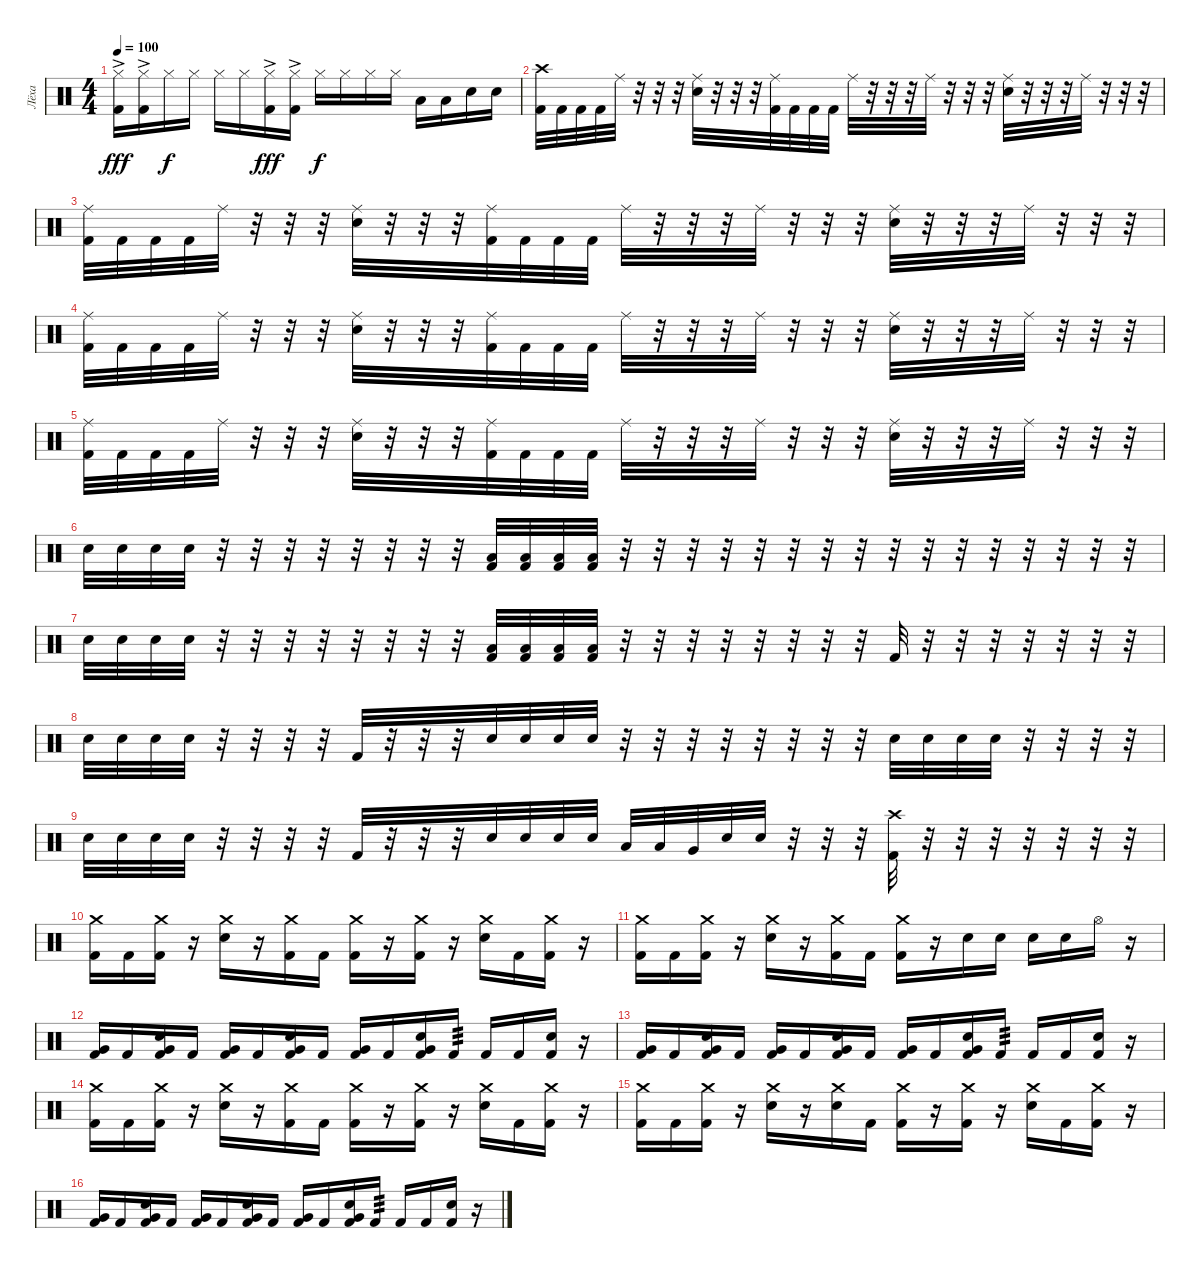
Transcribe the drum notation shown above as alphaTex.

\track ("Лёха" "Лёха") {instrument percussion}
\staff {score}
\articulation defaults
\ts (4 4)
\tempo 100
\clef neutral
\ks c
("Hi-Hat (closed)"{ac} "Kick (hit) 2").16{dy fff} ("Hi-Hat (closed)"{ac} "Kick (hit) 2").16 "Hi-Hat (closed)".16{dy f} "Hi-Hat (closed)".16 "Hi-Hat (closed)".16 "Hi-Hat (closed)".16 ("Hi-Hat (closed)"{ac} "Kick (hit) 2").16{dy fff} ("Hi-Hat (closed)"{ac} "Kick (hit) 2").16 "Hi-Hat (closed)".16{dy f} "Hi-Hat (closed)".16 "Hi-Hat (closed)".16 "Hi-Hat (closed)".16 "Low Tom (hit)".16 "Low Tom (hit)".16 "Electric Snare (hit)".16 "Electric Snare (hit)".16 |
("Crash high (hit)" "Kick (hit) 2").32 "Kick (hit) 2".32 "Kick (hit) 2".32 "Kick (hit) 2".32 "Ride (middle)".32 r.32 r.32 r.32 ("Ride (middle)" "Electric Snare (hit)").32 r.32 r.32 r.32 ("Ride (middle)" "Kick (hit) 2").32 "Kick (hit) 2".32 "Kick (hit) 2".32 "Kick (hit) 2".32 "Ride (middle)".32 r.32 r.32 r.32 "Ride (middle)".32 r.32 r.32 r.32 ("Ride (middle)" "Electric Snare (hit)").32 r.32 r.32 r.32 "Ride (middle)".32 r.32 r.32 r.32 |
("Ride (middle)" "Kick (hit) 2").32 "Kick (hit) 2".32 "Kick (hit) 2".32 "Kick (hit) 2".32 "Ride (middle)".32 r.32 r.32 r.32 ("Ride (middle)" "Electric Snare (hit)").32 r.32 r.32 r.32 ("Ride (middle)" "Kick (hit) 2").32 "Kick (hit) 2".32 "Kick (hit) 2".32 "Kick (hit) 2".32 "Ride (middle)".32 r.32 r.32 r.32 "Ride (middle)".32 r.32 r.32 r.32 ("Ride (middle)" "Electric Snare (hit)").32 r.32 r.32 r.32 "Ride (middle)".32 r.32 r.32 r.32 |
("Ride (middle)" "Kick (hit) 2").32 "Kick (hit) 2".32 "Kick (hit) 2".32 "Kick (hit) 2".32 "Ride (middle)".32 r.32 r.32 r.32 ("Ride (middle)" "Electric Snare (hit)").32 r.32 r.32 r.32 ("Ride (middle)" "Kick (hit) 2").32 "Kick (hit) 2".32 "Kick (hit) 2".32 "Kick (hit) 2".32 "Ride (middle)".32 r.32 r.32 r.32 "Ride (middle)".32 r.32 r.32 r.32 ("Ride (middle)" "Electric Snare (hit)").32 r.32 r.32 r.32 "Ride (middle)".32 r.32 r.32 r.32 |
("Ride (middle)" "Kick (hit) 2").32 "Kick (hit) 2".32 "Kick (hit) 2".32 "Kick (hit) 2".32 "Ride (middle)".32 r.32 r.32 r.32 ("Ride (middle)" "Electric Snare (hit)").32 r.32 r.32 r.32 ("Ride (middle)" "Kick (hit) 2").32 "Kick (hit) 2".32 "Kick (hit) 2".32 "Kick (hit) 2".32 "Ride (middle)".32 r.32 r.32 r.32 "Ride (middle)".32 r.32 r.32 r.32 ("Ride (middle)" "Electric Snare (hit)").32 r.32 r.32 r.32 "Ride (middle)".32 r.32 r.32 r.32 |
"Electric Snare (hit)".32 "Electric Snare (hit)".32 "Electric Snare (hit)".32 "Electric Snare (hit)".32 r.32 r.32 r.32 r.32 r.32 r.32 r.32 r.32 ("Low Tom (hit)" "Kick (hit) 2").32 ("Low Tom (hit)" "Kick (hit) 2").32 ("Low Tom (hit)" "Kick (hit) 2").32 ("Low Tom (hit)" "Kick (hit) 2").32 r.32 r.32 r.32 r.32 r.32 r.32 r.32 r.32 r.32 r.32 r.32 r.32 r.32 r.32 r.32 r.32 |
"Electric Snare (hit)".32 "Electric Snare (hit)".32 "Electric Snare (hit)".32 "Electric Snare (hit)".32 r.32 r.32 r.32 r.32 r.32 r.32 r.32 r.32 ("Low Tom (hit)" "Kick (hit) 2").32 ("Low Tom (hit)" "Kick (hit) 2").32 ("Low Tom (hit)" "Kick (hit) 2").32 ("Low Tom (hit)" "Kick (hit) 2").32 r.32 r.32 r.32 r.32 r.32 r.32 r.32 r.32 "Kick (hit) 2".32 r.32 r.32 r.32 r.32 r.32 r.32 r.32 |
"Electric Snare (hit)".32 "Electric Snare (hit)".32 "Electric Snare (hit)".32 "Electric Snare (hit)".32 r.32 r.32 r.32 r.32 "Kick (hit) 2".32 r.32 r.32 r.32 "Electric Snare (hit)".32 "Electric Snare (hit)".32 "Electric Snare (hit)".32 "Electric Snare (hit)".32 r.32 r.32 r.32 r.32 r.32 r.32 r.32 r.32 "Electric Snare (hit)".32 "Electric Snare (hit)".32 "Electric Snare (hit)".32 "Electric Snare (hit)".32 r.32 r.32 r.32 r.32 |
"Electric Snare (hit)".32 "Electric Snare (hit)".32 "Electric Snare (hit)".32 "Electric Snare (hit)".32 r.32 r.32 r.32 r.32 "Kick (hit) 2".32 r.32 r.32 r.32 "Electric Snare (hit)".32 "Electric Snare (hit)".32 "Electric Snare (hit)".32 "Electric Snare (hit)".32 "Low Tom (hit)".32 "Low Tom (hit)".32 "Very Low Tom (hit)".32 "Electric Snare (hit)".32 "Electric Snare (hit)".32 r.32 r.32 r.32 ("Crash high (hit)" "Kick (hit) 2").32 r.32 r.32 r.32 r.32 r.32 r.32 r.32 |
("Crash medium (hit)" "Kick (hit) 2").16 "Kick (hit) 2".16 ("Crash medium (hit)" "Kick (hit) 2").16 r.16 ("Crash medium (hit)" "Electric Snare (hit)").16 r.16 ("Crash medium (hit)" "Kick (hit) 2").16 "Kick (hit) 2".16 ("Crash medium (hit)" "Kick (hit) 2").16 r.16 ("Crash medium (hit)" "Kick (hit) 2").16 r.16 ("Crash medium (hit)" "Electric Snare (hit)").16 "Kick (hit) 2".16 ("Crash medium (hit)" "Kick (hit) 2").16 r.16 |
("Crash medium (hit)" "Kick (hit) 2").16 "Kick (hit) 2".16 ("Crash medium (hit)" "Kick (hit) 2").16 r.16 ("Crash medium (hit)" "Electric Snare (hit)").16 r.16 ("Crash medium (hit)" "Kick (hit) 2").16 "Kick (hit) 2".16 ("Crash medium (hit)" "Kick (hit) 2").16 r.16 "Electric Snare (hit)".16 "Electric Snare (hit)".16 "Electric Snare (hit)".16 "Electric Snare (hit)".16 "Hi-Hat (open)".16 r.16 |
("Very Low Tom (hit)" "Kick (hit) 2").16 "Kick (hit) 2".16 ("Electric Snare (hit)" "Very Low Tom (hit)" "Kick (hit) 2").16 "Kick (hit) 2".16 ("Very Low Tom (hit)" "Kick (hit) 2").16 "Kick (hit) 2".16 ("Electric Snare (hit)" "Very Low Tom (hit)" "Kick (hit) 2").16 "Kick (hit) 2".16 ("Very Low Tom (hit)" "Kick (hit) 2").16 "Kick (hit) 2".16 ("Electric Snare (hit)" "Very Low Tom (hit)" "Kick (hit) 2").16 "Kick (hit) 2".16{tp 3} "Kick (hit) 2".16 "Kick (hit) 2".16 ("Electric Snare (hit)" "Kick (hit) 2").16 r.16 |
("Very Low Tom (hit)" "Kick (hit) 2").16 "Kick (hit) 2".16 ("Electric Snare (hit)" "Very Low Tom (hit)" "Kick (hit) 2").16 "Kick (hit) 2".16 ("Very Low Tom (hit)" "Kick (hit) 2").16 "Kick (hit) 2".16 ("Electric Snare (hit)" "Very Low Tom (hit)" "Kick (hit) 2").16 "Kick (hit) 2".16 ("Very Low Tom (hit)" "Kick (hit) 2").16 "Kick (hit) 2".16 ("Electric Snare (hit)" "Very Low Tom (hit)" "Kick (hit) 2").16 "Kick (hit) 2".16{tp 3} "Kick (hit) 2".16 "Kick (hit) 2".16 ("Electric Snare (hit)" "Kick (hit) 2").16 r.16 |
("Crash medium (hit)" "Kick (hit) 2").16 "Kick (hit) 2".16 ("Crash medium (hit)" "Kick (hit) 2").16 r.16 ("Crash medium (hit)" "Electric Snare (hit)").16 r.16 ("Crash medium (hit)" "Kick (hit) 2").16 "Kick (hit) 2".16 ("Crash medium (hit)" "Kick (hit) 2").16 r.16 ("Crash medium (hit)" "Kick (hit) 2").16 r.16 ("Crash medium (hit)" "Electric Snare (hit)").16 "Kick (hit) 2".16 ("Crash medium (hit)" "Kick (hit) 2").16 r.16 |
("Crash medium (hit)" "Kick (hit) 2").16 "Kick (hit) 2".16 ("Crash medium (hit)" "Kick (hit) 2").16 r.16 ("Crash medium (hit)" "Electric Snare (hit)").16 r.16 ("Crash medium (hit)" "Electric Snare (hit)").16 "Kick (hit) 2".16 ("Crash medium (hit)" "Kick (hit) 2").16 r.16 ("Crash medium (hit)" "Kick (hit) 2").16 r.16 ("Crash medium (hit)" "Electric Snare (hit)").16 "Kick (hit) 2".16 ("Crash medium (hit)" "Kick (hit) 2").16 r.16 |
("Very Low Tom (hit)" "Kick (hit) 2").16 "Kick (hit) 2".16 ("Electric Snare (hit)" "Very Low Tom (hit)" "Kick (hit) 2").16 "Kick (hit) 2".16 ("Very Low Tom (hit)" "Kick (hit) 2").16 "Kick (hit) 2".16 ("Electric Snare (hit)" "Very Low Tom (hit)" "Kick (hit) 2").16 "Kick (hit) 2".16 ("Very Low Tom (hit)" "Kick (hit) 2").16 "Kick (hit) 2".16 ("Electric Snare (hit)" "Very Low Tom (hit)" "Kick (hit) 2").16 "Kick (hit) 2".16{tp 3} "Kick (hit) 2".16 "Kick (hit) 2".16 ("Electric Snare (hit)" "Kick (hit) 2").16 r.16
